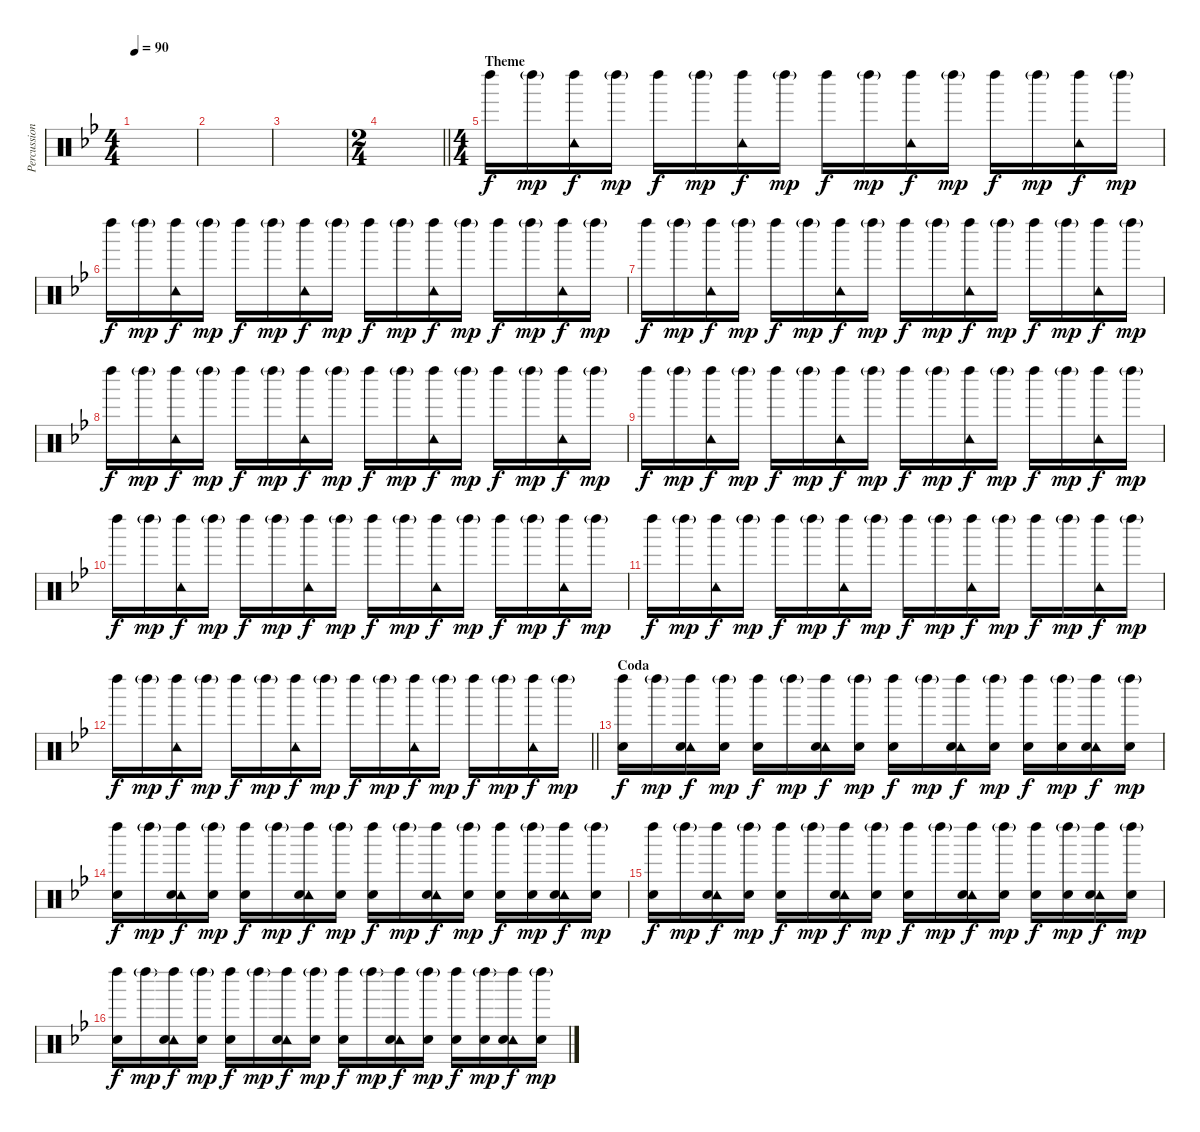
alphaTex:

\track ("Percussion" "Percussion") {instrument percussion}
\staff {score}
\articulation defaults
\ts (4 4)
\tempo 90
\clef neutral
\ks bb
|
|
|
\ts (2 4)
\barLineRight lightlight
|
\ts (4 4)
\section ("" "Theme")
"Left Maraca (hit)".16 "Left Maraca (hit)"{g}.16{dy mp} ("Left Maraca (hit)" "Tambourine (hit)").16{dy f} "Left Maraca (hit)"{g}.16{dy mp} "Left Maraca (hit)".16{dy f} "Left Maraca (hit)"{g}.16{dy mp} ("Left Maraca (hit)" "Tambourine (hit)").16{dy f} "Left Maraca (hit)"{g}.16{dy mp} "Left Maraca (hit)".16{dy f} "Left Maraca (hit)"{g}.16{dy mp} ("Left Maraca (hit)" "Tambourine (hit)").16{dy f} "Left Maraca (hit)"{g}.16{dy mp} "Left Maraca (hit)".16{dy f} "Left Maraca (hit)"{g}.16{dy mp} ("Left Maraca (hit)" "Tambourine (hit)").16{dy f} "Left Maraca (hit)"{g}.16{dy mp} |
"Left Maraca (hit)".16{dy f} "Left Maraca (hit)"{g}.16{dy mp} ("Left Maraca (hit)" "Tambourine (hit)").16{dy f} "Left Maraca (hit)"{g}.16{dy mp} "Left Maraca (hit)".16{dy f} "Left Maraca (hit)"{g}.16{dy mp} ("Left Maraca (hit)" "Tambourine (hit)").16{dy f} "Left Maraca (hit)"{g}.16{dy mp} "Left Maraca (hit)".16{dy f} "Left Maraca (hit)"{g}.16{dy mp} ("Left Maraca (hit)" "Tambourine (hit)").16{dy f} "Left Maraca (hit)"{g}.16{dy mp} "Left Maraca (hit)".16{dy f} "Left Maraca (hit)"{g}.16{dy mp} ("Left Maraca (hit)" "Tambourine (hit)").16{dy f} "Left Maraca (hit)"{g}.16{dy mp} |
"Left Maraca (hit)".16{dy f} "Left Maraca (hit)"{g}.16{dy mp} ("Left Maraca (hit)" "Tambourine (hit)").16{dy f} "Left Maraca (hit)"{g}.16{dy mp} "Left Maraca (hit)".16{dy f} "Left Maraca (hit)"{g}.16{dy mp} ("Left Maraca (hit)" "Tambourine (hit)").16{dy f} "Left Maraca (hit)"{g}.16{dy mp} "Left Maraca (hit)".16{dy f} "Left Maraca (hit)"{g}.16{dy mp} ("Left Maraca (hit)" "Tambourine (hit)").16{dy f} "Left Maraca (hit)"{g}.16{dy mp} "Left Maraca (hit)".16{dy f} "Left Maraca (hit)"{g}.16{dy mp} ("Left Maraca (hit)" "Tambourine (hit)").16{dy f} "Left Maraca (hit)"{g}.16{dy mp} |
"Left Maraca (hit)".16{dy f} "Left Maraca (hit)"{g}.16{dy mp} ("Left Maraca (hit)" "Tambourine (hit)").16{dy f} "Left Maraca (hit)"{g}.16{dy mp} "Left Maraca (hit)".16{dy f} "Left Maraca (hit)"{g}.16{dy mp} ("Left Maraca (hit)" "Tambourine (hit)").16{dy f} "Left Maraca (hit)"{g}.16{dy mp} "Left Maraca (hit)".16{dy f} "Left Maraca (hit)"{g}.16{dy mp} ("Left Maraca (hit)" "Tambourine (hit)").16{dy f} "Left Maraca (hit)"{g}.16{dy mp} "Left Maraca (hit)".16{dy f} "Left Maraca (hit)"{g}.16{dy mp} ("Left Maraca (hit)" "Tambourine (hit)").16{dy f} "Left Maraca (hit)"{g}.16{dy mp} |
"Left Maraca (hit)".16{dy f} "Left Maraca (hit)"{g}.16{dy mp} ("Left Maraca (hit)" "Tambourine (hit)").16{dy f} "Left Maraca (hit)"{g}.16{dy mp} "Left Maraca (hit)".16{dy f} "Left Maraca (hit)"{g}.16{dy mp} ("Left Maraca (hit)" "Tambourine (hit)").16{dy f} "Left Maraca (hit)"{g}.16{dy mp} "Left Maraca (hit)".16{dy f} "Left Maraca (hit)"{g}.16{dy mp} ("Left Maraca (hit)" "Tambourine (hit)").16{dy f} "Left Maraca (hit)"{g}.16{dy mp} "Left Maraca (hit)".16{dy f} "Left Maraca (hit)"{g}.16{dy mp} ("Left Maraca (hit)" "Tambourine (hit)").16{dy f} "Left Maraca (hit)"{g}.16{dy mp} |
"Left Maraca (hit)".16{dy f} "Left Maraca (hit)"{g}.16{dy mp} ("Left Maraca (hit)" "Tambourine (hit)").16{dy f} "Left Maraca (hit)"{g}.16{dy mp} "Left Maraca (hit)".16{dy f} "Left Maraca (hit)"{g}.16{dy mp} ("Left Maraca (hit)" "Tambourine (hit)").16{dy f} "Left Maraca (hit)"{g}.16{dy mp} "Left Maraca (hit)".16{dy f} "Left Maraca (hit)"{g}.16{dy mp} ("Left Maraca (hit)" "Tambourine (hit)").16{dy f} "Left Maraca (hit)"{g}.16{dy mp} "Left Maraca (hit)".16{dy f} "Left Maraca (hit)"{g}.16{dy mp} ("Left Maraca (hit)" "Tambourine (hit)").16{dy f} "Left Maraca (hit)"{g}.16{dy mp} |
"Left Maraca (hit)".16{dy f} "Left Maraca (hit)"{g}.16{dy mp} ("Left Maraca (hit)" "Tambourine (hit)").16{dy f} "Left Maraca (hit)"{g}.16{dy mp} "Left Maraca (hit)".16{dy f} "Left Maraca (hit)"{g}.16{dy mp} ("Left Maraca (hit)" "Tambourine (hit)").16{dy f} "Left Maraca (hit)"{g}.16{dy mp} "Left Maraca (hit)".16{dy f} "Left Maraca (hit)"{g}.16{dy mp} ("Left Maraca (hit)" "Tambourine (hit)").16{dy f} "Left Maraca (hit)"{g}.16{dy mp} "Left Maraca (hit)".16{dy f} "Left Maraca (hit)"{g}.16{dy mp} ("Left Maraca (hit)" "Tambourine (hit)").16{dy f} "Left Maraca (hit)"{g}.16{dy mp} |
\barLineRight lightlight "Left Maraca (hit)".16{dy f} "Left Maraca (hit)"{g}.16{dy mp}
("Left Maraca (hit)" "Tambourine (hit)").16{dy f} "Left Maraca (hit)"{g}.16{dy mp} "Left Maraca (hit)".16{dy f} "Left Maraca (hit)"{g}.16{dy mp} ("Left Maraca (hit)" "Tambourine (hit)").16{dy f} "Left Maraca (hit)"{g}.16{dy mp} "Left Maraca (hit)".16{dy f} "Left Maraca (hit)"{g}.16{dy mp} ("Left Maraca (hit)" "Tambourine (hit)").16{dy f} "Left Maraca (hit)"{g}.16{dy mp} "Left Maraca (hit)".16{dy f} "Left Maraca (hit)"{g}.16{dy mp} ("Left Maraca (hit)" "Tambourine (hit)").16{dy f} "Left Maraca (hit)"{g}.16{dy mp} |
\section ("" "Coda")
("Left Maraca (hit)" "Snare (hit) 2").16{dy f} "Left Maraca (hit)"{g}.16{dy mp} ("Left Maraca (hit)" "Tambourine (hit)" "Snare (hit) 2").16{dy f} ("Left Maraca (hit)"{g} "Snare (hit) 2").16{dy mp} ("Left Maraca (hit)" "Snare (hit) 2").16{dy f} "Left Maraca (hit)"{g}.16{dy mp} ("Left Maraca (hit)" "Tambourine (hit)" "Snare (hit) 2").16{dy f} ("Left Maraca (hit)"{g} "Snare (hit) 2").16{dy mp} ("Left Maraca (hit)" "Snare (hit) 2").16{dy f} "Left Maraca (hit)"{g}.16{dy mp} ("Left Maraca (hit)" "Tambourine (hit)" "Snare (hit) 2").16{dy f} ("Left Maraca (hit)"{g} "Snare (hit) 2").16{dy mp} ("Left Maraca (hit)" "Snare (hit) 2").16{dy f} ("Left Maraca (hit)"{g} "Snare (hit) 2").16{dy mp} ("Left Maraca (hit)" "Tambourine (hit)" "Snare (hit) 2").16{dy f} ("Left Maraca (hit)"{g} "Snare (hit) 2").16{dy mp} |
("Left Maraca (hit)" "Snare (hit) 2").16{dy f} "Left Maraca (hit)"{g}.16{dy mp} ("Left Maraca (hit)" "Tambourine (hit)" "Snare (hit) 2").16{dy f} ("Left Maraca (hit)"{g} "Snare (hit) 2").16{dy mp} ("Left Maraca (hit)" "Snare (hit) 2").16{dy f} "Left Maraca (hit)"{g}.16{dy mp} ("Left Maraca (hit)" "Tambourine (hit)" "Snare (hit) 2").16{dy f} ("Left Maraca (hit)"{g} "Snare (hit) 2").16{dy mp} ("Left Maraca (hit)" "Snare (hit) 2").16{dy f} "Left Maraca (hit)"{g}.16{dy mp} ("Left Maraca (hit)" "Tambourine (hit)" "Snare (hit) 2").16{dy f} ("Left Maraca (hit)"{g} "Snare (hit) 2").16{dy mp} ("Left Maraca (hit)" "Snare (hit) 2").16{dy f} ("Left Maraca (hit)"{g} "Snare (hit) 2").16{dy mp} ("Left Maraca (hit)" "Tambourine (hit)" "Snare (hit) 2").16{dy f} ("Left Maraca (hit)"{g} "Snare (hit) 2").16{dy mp} |
("Left Maraca (hit)" "Snare (hit) 2").16{dy f} "Left Maraca (hit)"{g}.16{dy mp} ("Left Maraca (hit)" "Tambourine (hit)" "Snare (hit) 2").16{dy f} ("Left Maraca (hit)"{g} "Snare (hit) 2").16{dy mp} ("Left Maraca (hit)" "Snare (hit) 2").16{dy f} "Left Maraca (hit)"{g}.16{dy mp} ("Left Maraca (hit)" "Tambourine (hit)" "Snare (hit) 2").16{dy f} ("Left Maraca (hit)"{g} "Snare (hit) 2").16{dy mp} ("Left Maraca (hit)" "Snare (hit) 2").16{dy f} "Left Maraca (hit)"{g}.16{dy mp} ("Left Maraca (hit)" "Tambourine (hit)" "Snare (hit) 2").16{dy f} ("Left Maraca (hit)"{g} "Snare (hit) 2").16{dy mp} ("Left Maraca (hit)" "Snare (hit) 2").16{dy f} ("Left Maraca (hit)"{g} "Snare (hit) 2").16{dy mp} ("Left Maraca (hit)" "Tambourine (hit)" "Snare (hit) 2").16{dy f} ("Left Maraca (hit)"{g} "Snare (hit) 2").16{dy mp} |
("Left Maraca (hit)" "Snare (hit) 2").16{dy f} "Left Maraca (hit)"{g}.16{dy mp} ("Left Maraca (hit)" "Tambourine (hit)" "Snare (hit) 2").16{dy f} ("Left Maraca (hit)"{g} "Snare (hit) 2").16{dy mp} ("Left Maraca (hit)" "Snare (hit) 2").16{dy f} "Left Maraca (hit)"{g}.16{dy mp} ("Left Maraca (hit)" "Tambourine (hit)" "Snare (hit) 2").16{dy f} ("Left Maraca (hit)"{g} "Snare (hit) 2").16{dy mp} ("Left Maraca (hit)" "Snare (hit) 2").16{dy f} "Left Maraca (hit)"{g}.16{dy mp} ("Left Maraca (hit)" "Tambourine (hit)" "Snare (hit) 2").16{dy f} ("Left Maraca (hit)"{g} "Snare (hit) 2").16{dy mp} ("Left Maraca (hit)" "Snare (hit) 2").16{dy f} ("Left Maraca (hit)"{g} "Snare (hit) 2").16{dy mp} ("Left Maraca (hit)" "Tambourine (hit)" "Snare (hit) 2").16{dy f} ("Left Maraca (hit)"{g} "Snare (hit) 2").16{dy mp}
